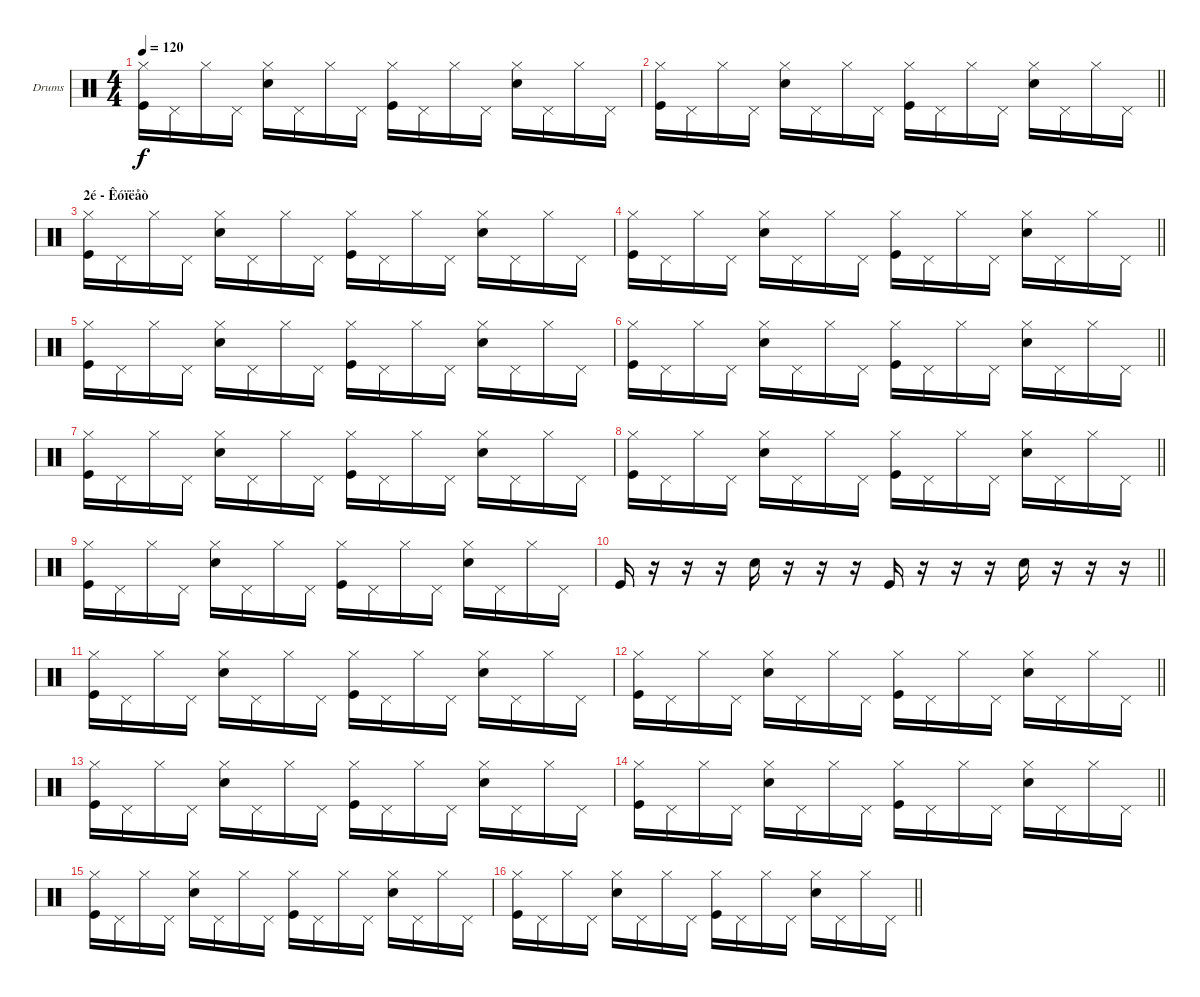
\bracketExtendMode groupsimilarinstruments
\firstSystemTrackNameOrientation horizontal
\otherSystemsTrackNameOrientation horizontal
\track ("Drumkit" "Drums") {instrument percussion}
\staff {score}
\articulation defaults
\ts (4 4)
\tempo 120
\clef neutral
\ks c
("Hi-Hat (closed)" "Kick (hit)").16{dy f} "Pedal Hi-Hat (hit)".16 "Hi-Hat (closed)".16 "Pedal Hi-Hat (hit)".16 ("Hi-Hat (closed)" "Snare (hit) 2").16 "Pedal Hi-Hat (hit)".16 "Hi-Hat (closed)".16 "Pedal Hi-Hat (hit)".16 ("Hi-Hat (closed)" "Kick (hit)").16 "Pedal Hi-Hat (hit)".16 "Hi-Hat (closed)".16 "Pedal Hi-Hat (hit)".16 ("Hi-Hat (closed)" "Snare (hit) 2").16 "Pedal Hi-Hat (hit)".16 "Hi-Hat (closed)".16 "Pedal Hi-Hat (hit)".16 |
\barLineRight lightlight
("Hi-Hat (closed)" "Kick (hit)").16 "Pedal Hi-Hat (hit)".16 "Hi-Hat (closed)".16 "Pedal Hi-Hat (hit)".16 ("Hi-Hat (closed)" "Snare (hit) 2").16 "Pedal Hi-Hat (hit)".16 "Hi-Hat (closed)".16 "Pedal Hi-Hat (hit)".16 ("Hi-Hat (closed)" "Kick (hit)").16 "Pedal Hi-Hat (hit)".16 "Hi-Hat (closed)".16 "Pedal Hi-Hat (hit)".16 ("Hi-Hat (closed)" "Snare (hit) 2").16 "Pedal Hi-Hat (hit)".16 "Hi-Hat (closed)".16 "Pedal Hi-Hat (hit)".16 |
\section ("" "2é - Êóïëåò")
("Hi-Hat (closed)" "Kick (hit)").16 "Pedal Hi-Hat (hit)".16 "Hi-Hat (closed)".16 "Pedal Hi-Hat (hit)".16 ("Hi-Hat (closed)" "Snare (hit) 2").16 "Pedal Hi-Hat (hit)".16 "Hi-Hat (closed)".16 "Pedal Hi-Hat (hit)".16 ("Hi-Hat (closed)" "Kick (hit)").16 "Pedal Hi-Hat (hit)".16 "Hi-Hat (closed)".16 "Pedal Hi-Hat (hit)".16 ("Hi-Hat (closed)" "Snare (hit) 2").16 "Pedal Hi-Hat (hit)".16 "Hi-Hat (closed)".16 "Pedal Hi-Hat (hit)".16 |
\barLineRight lightlight
("Hi-Hat (closed)" "Kick (hit)").16 "Pedal Hi-Hat (hit)".16 "Hi-Hat (closed)".16 "Pedal Hi-Hat (hit)".16 ("Hi-Hat (closed)" "Snare (hit) 2").16 "Pedal Hi-Hat (hit)".16 "Hi-Hat (closed)".16 "Pedal Hi-Hat (hit)".16 ("Hi-Hat (closed)" "Kick (hit)").16 "Pedal Hi-Hat (hit)".16 "Hi-Hat (closed)".16 "Pedal Hi-Hat (hit)".16 ("Hi-Hat (closed)" "Snare (hit) 2").16 "Pedal Hi-Hat (hit)".16 "Hi-Hat (closed)".16 "Pedal Hi-Hat (hit)".16 |
("Hi-Hat (closed)" "Kick (hit)").16 "Pedal Hi-Hat (hit)".16 "Hi-Hat (closed)".16 "Pedal Hi-Hat (hit)".16 ("Hi-Hat (closed)" "Snare (hit) 2").16 "Pedal Hi-Hat (hit)".16 "Hi-Hat (closed)".16 "Pedal Hi-Hat (hit)".16 ("Hi-Hat (closed)" "Kick (hit)").16 "Pedal Hi-Hat (hit)".16 "Hi-Hat (closed)".16 "Pedal Hi-Hat (hit)".16 ("Hi-Hat (closed)" "Snare (hit) 2").16 "Pedal Hi-Hat (hit)".16 "Hi-Hat (closed)".16 "Pedal Hi-Hat (hit)".16 |
\barLineRight lightlight
("Hi-Hat (closed)" "Kick (hit)").16 "Pedal Hi-Hat (hit)".16 "Hi-Hat (closed)".16 "Pedal Hi-Hat (hit)".16 ("Hi-Hat (closed)" "Snare (hit) 2").16 "Pedal Hi-Hat (hit)".16 "Hi-Hat (closed)".16 "Pedal Hi-Hat (hit)".16 ("Hi-Hat (closed)" "Kick (hit)").16 "Pedal Hi-Hat (hit)".16 "Hi-Hat (closed)".16 "Pedal Hi-Hat (hit)".16 ("Hi-Hat (closed)" "Snare (hit) 2").16 "Pedal Hi-Hat (hit)".16 "Hi-Hat (closed)".16 "Pedal Hi-Hat (hit)".16 |
("Hi-Hat (closed)" "Kick (hit)").16 "Pedal Hi-Hat (hit)".16 "Hi-Hat (closed)".16 "Pedal Hi-Hat (hit)".16 ("Hi-Hat (closed)" "Snare (hit) 2").16 "Pedal Hi-Hat (hit)".16 "Hi-Hat (closed)".16 "Pedal Hi-Hat (hit)".16 ("Hi-Hat (closed)" "Kick (hit)").16 "Pedal Hi-Hat (hit)".16 "Hi-Hat (closed)".16 "Pedal Hi-Hat (hit)".16 ("Hi-Hat (closed)" "Snare (hit) 2").16 "Pedal Hi-Hat (hit)".16 "Hi-Hat (closed)".16 "Pedal Hi-Hat (hit)".16 |
\barLineRight lightlight
("Hi-Hat (closed)" "Kick (hit)").16 "Pedal Hi-Hat (hit)".16 "Hi-Hat (closed)".16 "Pedal Hi-Hat (hit)".16 ("Hi-Hat (closed)" "Snare (hit) 2").16 "Pedal Hi-Hat (hit)".16 "Hi-Hat (closed)".16 "Pedal Hi-Hat (hit)".16 ("Hi-Hat (closed)" "Kick (hit)").16 "Pedal Hi-Hat (hit)".16 "Hi-Hat (closed)".16 "Pedal Hi-Hat (hit)".16 ("Hi-Hat (closed)" "Snare (hit) 2").16 "Pedal Hi-Hat (hit)".16 "Hi-Hat (closed)".16 "Pedal Hi-Hat (hit)".16 |
("Hi-Hat (closed)" "Kick (hit)").16 "Pedal Hi-Hat (hit)".16 "Hi-Hat (closed)".16 "Pedal Hi-Hat (hit)".16 ("Hi-Hat (closed)" "Snare (hit) 2").16 "Pedal Hi-Hat (hit)".16 "Hi-Hat (closed)".16 "Pedal Hi-Hat (hit)".16 ("Hi-Hat (closed)" "Kick (hit)").16 "Pedal Hi-Hat (hit)".16 "Hi-Hat (closed)".16 "Pedal Hi-Hat (hit)".16 ("Hi-Hat (closed)" "Snare (hit) 2").16 "Pedal Hi-Hat (hit)".16 "Hi-Hat (closed)".16 "Pedal Hi-Hat (hit)".16 |
\barLineRight lightlight "Kick (hit)".16
r.16 r.16 r.16 "Snare (hit) 2".16 r.16 r.16 r.16 "Kick (hit)".16 r.16 r.16 r.16 "Snare (hit) 2".16 r.16 r.16 r.16 |
("Hi-Hat (closed)" "Kick (hit)").16 "Pedal Hi-Hat (hit)".16 "Hi-Hat (closed)".16 "Pedal Hi-Hat (hit)".16 ("Hi-Hat (closed)" "Snare (hit) 2").16 "Pedal Hi-Hat (hit)".16 "Hi-Hat (closed)".16 "Pedal Hi-Hat (hit)".16 ("Hi-Hat (closed)" "Kick (hit)").16 "Pedal Hi-Hat (hit)".16 "Hi-Hat (closed)".16 "Pedal Hi-Hat (hit)".16 ("Hi-Hat (closed)" "Snare (hit) 2").16 "Pedal Hi-Hat (hit)".16 "Hi-Hat (closed)".16 "Pedal Hi-Hat (hit)".16 |
\barLineRight lightlight
("Hi-Hat (closed)" "Kick (hit)").16 "Pedal Hi-Hat (hit)".16 "Hi-Hat (closed)".16 "Pedal Hi-Hat (hit)".16 ("Hi-Hat (closed)" "Snare (hit) 2").16 "Pedal Hi-Hat (hit)".16 "Hi-Hat (closed)".16 "Pedal Hi-Hat (hit)".16 ("Hi-Hat (closed)" "Kick (hit)").16 "Pedal Hi-Hat (hit)".16 "Hi-Hat (closed)".16 "Pedal Hi-Hat (hit)".16 ("Hi-Hat (closed)" "Snare (hit) 2").16 "Pedal Hi-Hat (hit)".16 "Hi-Hat (closed)".16 "Pedal Hi-Hat (hit)".16 |
("Hi-Hat (closed)" "Kick (hit)").16 "Pedal Hi-Hat (hit)".16 "Hi-Hat (closed)".16 "Pedal Hi-Hat (hit)".16 ("Hi-Hat (closed)" "Snare (hit) 2").16 "Pedal Hi-Hat (hit)".16 "Hi-Hat (closed)".16 "Pedal Hi-Hat (hit)".16 ("Hi-Hat (closed)" "Kick (hit)").16 "Pedal Hi-Hat (hit)".16 "Hi-Hat (closed)".16 "Pedal Hi-Hat (hit)".16 ("Hi-Hat (closed)" "Snare (hit) 2").16 "Pedal Hi-Hat (hit)".16 "Hi-Hat (closed)".16 "Pedal Hi-Hat (hit)".16 |
\barLineRight lightlight
("Hi-Hat (closed)" "Kick (hit)").16 "Pedal Hi-Hat (hit)".16 "Hi-Hat (closed)".16 "Pedal Hi-Hat (hit)".16 ("Hi-Hat (closed)" "Snare (hit) 2").16 "Pedal Hi-Hat (hit)".16 "Hi-Hat (closed)".16 "Pedal Hi-Hat (hit)".16 ("Hi-Hat (closed)" "Kick (hit)").16 "Pedal Hi-Hat (hit)".16 "Hi-Hat (closed)".16 "Pedal Hi-Hat (hit)".16 ("Hi-Hat (closed)" "Snare (hit) 2").16 "Pedal Hi-Hat (hit)".16 "Hi-Hat (closed)".16 "Pedal Hi-Hat (hit)".16 |
("Hi-Hat (closed)" "Kick (hit)").16 "Pedal Hi-Hat (hit)".16 "Hi-Hat (closed)".16 "Pedal Hi-Hat (hit)".16 ("Hi-Hat (closed)" "Snare (hit) 2").16 "Pedal Hi-Hat (hit)".16 "Hi-Hat (closed)".16 "Pedal Hi-Hat (hit)".16 ("Hi-Hat (closed)" "Kick (hit)").16 "Pedal Hi-Hat (hit)".16 "Hi-Hat (closed)".16 "Pedal Hi-Hat (hit)".16 ("Hi-Hat (closed)" "Snare (hit) 2").16 "Pedal Hi-Hat (hit)".16 "Hi-Hat (closed)".16 "Pedal Hi-Hat (hit)".16 |
\barLineRight lightlight
("Hi-Hat (closed)" "Kick (hit)").16 "Pedal Hi-Hat (hit)".16 "Hi-Hat (closed)".16 "Pedal Hi-Hat (hit)".16 ("Hi-Hat (closed)" "Snare (hit) 2").16 "Pedal Hi-Hat (hit)".16 "Hi-Hat (closed)".16 "Pedal Hi-Hat (hit)".16 ("Hi-Hat (closed)" "Kick (hit)").16 "Pedal Hi-Hat (hit)".16 "Hi-Hat (closed)".16 "Pedal Hi-Hat (hit)".16 ("Hi-Hat (closed)" "Snare (hit) 2").16 "Pedal Hi-Hat (hit)".16 "Hi-Hat (closed)".16 "Pedal Hi-Hat (hit)".16
